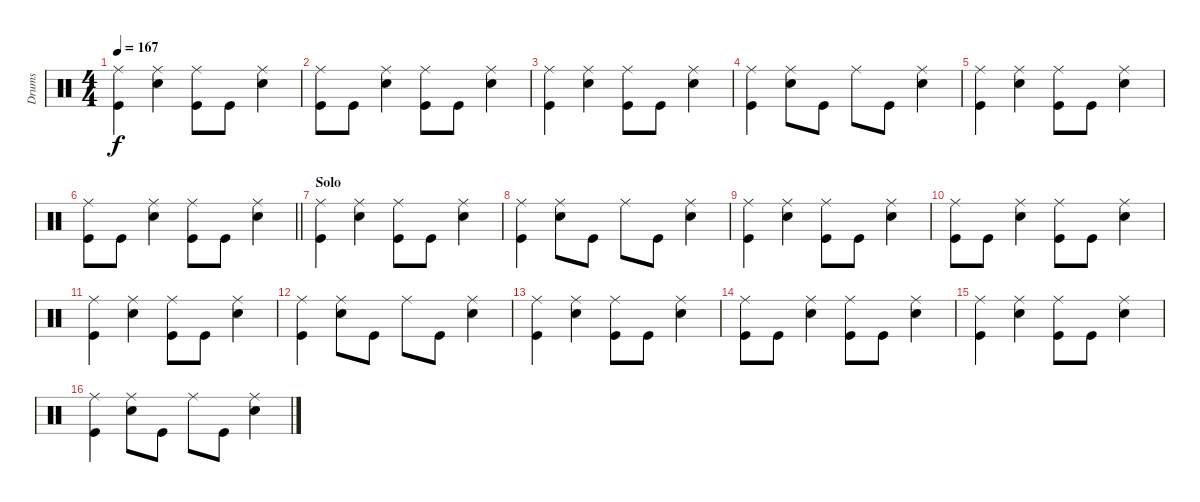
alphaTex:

\track ("Drums" "Drums") {instrument percussion}
\staff {score}
\articulation defaults
\ts (4 4)
\tempo 167
\clef neutral
\ks c
("Ride (middle)" "Kick (hit)").4{dy f} ("Ride (middle)" "Snare (hit) 2").4 ("Ride (middle)" "Kick (hit)").8 "Kick (hit)".8 ("Ride (middle)" "Snare (hit) 2").4 |
("Ride (middle)" "Kick (hit)").8 "Kick (hit)".8 ("Ride (middle)" "Snare (hit) 2").4 ("Ride (middle)" "Kick (hit)").8 "Kick (hit)".8 ("Ride (middle)" "Snare (hit) 2").4 |
("Ride (middle)" "Kick (hit)").4 ("Ride (middle)" "Snare (hit) 2").4 ("Ride (middle)" "Kick (hit)").8 "Kick (hit)".8 ("Ride (middle)" "Snare (hit) 2").4 |
("Ride (middle)" "Kick (hit)").4 ("Ride (middle)" "Snare (hit) 2").8 "Kick (hit)".8 "Ride (middle)".8 "Kick (hit)".8 ("Ride (middle)" "Snare (hit) 2").4 |
("Ride (middle)" "Kick (hit)").4 ("Ride (middle)" "Snare (hit) 2").4 ("Ride (middle)" "Kick (hit)").8 "Kick (hit)".8 ("Ride (middle)" "Snare (hit) 2").4 |
\barLineRight lightlight
("Ride (middle)" "Kick (hit)").8 "Kick (hit)".8 ("Ride (middle)" "Snare (hit) 2").4 ("Ride (middle)" "Kick (hit)").8 "Kick (hit)".8 ("Ride (middle)" "Snare (hit) 2").4 |
\section ("" "Solo")
("Ride (middle)" "Kick (hit)").4 ("Ride (middle)" "Snare (hit) 2").4 ("Ride (middle)" "Kick (hit)").8 "Kick (hit)".8 ("Ride (middle)" "Snare (hit) 2").4 |
("Ride (middle)" "Kick (hit)").4 ("Ride (middle)" "Snare (hit) 2").8 "Kick (hit)".8 "Ride (middle)".8 "Kick (hit)".8 ("Ride (middle)" "Snare (hit) 2").4 |
("Ride (middle)" "Kick (hit)").4 ("Ride (middle)" "Snare (hit) 2").4 ("Ride (middle)" "Kick (hit)").8 "Kick (hit)".8 ("Ride (middle)" "Snare (hit) 2").4 |
("Ride (middle)" "Kick (hit)").8 "Kick (hit)".8 ("Ride (middle)" "Snare (hit) 2").4 ("Ride (middle)" "Kick (hit)").8 "Kick (hit)".8 ("Ride (middle)" "Snare (hit) 2").4 |
("Ride (middle)" "Kick (hit)").4 ("Ride (middle)" "Snare (hit) 2").4 ("Ride (middle)" "Kick (hit)").8 "Kick (hit)".8 ("Ride (middle)" "Snare (hit) 2").4 |
("Ride (middle)" "Kick (hit)").4 ("Ride (middle)" "Snare (hit) 2").8 "Kick (hit)".8 "Ride (middle)".8 "Kick (hit)".8 ("Ride (middle)" "Snare (hit) 2").4 |
("Ride (middle)" "Kick (hit)").4 ("Ride (middle)" "Snare (hit) 2").4 ("Ride (middle)" "Kick (hit)").8 "Kick (hit)".8 ("Ride (middle)" "Snare (hit) 2").4 |
("Ride (middle)" "Kick (hit)").8 "Kick (hit)".8 ("Ride (middle)" "Snare (hit) 2").4 ("Ride (middle)" "Kick (hit)").8 "Kick (hit)".8 ("Ride (middle)" "Snare (hit) 2").4 |
("Ride (middle)" "Kick (hit)").4 ("Ride (middle)" "Snare (hit) 2").4 ("Ride (middle)" "Kick (hit)").8 "Kick (hit)".8 ("Ride (middle)" "Snare (hit) 2").4 |
("Ride (middle)" "Kick (hit)").4 ("Ride (middle)" "Snare (hit) 2").8 "Kick (hit)".8 "Ride (middle)".8 "Kick (hit)".8 ("Ride (middle)" "Snare (hit) 2").4
